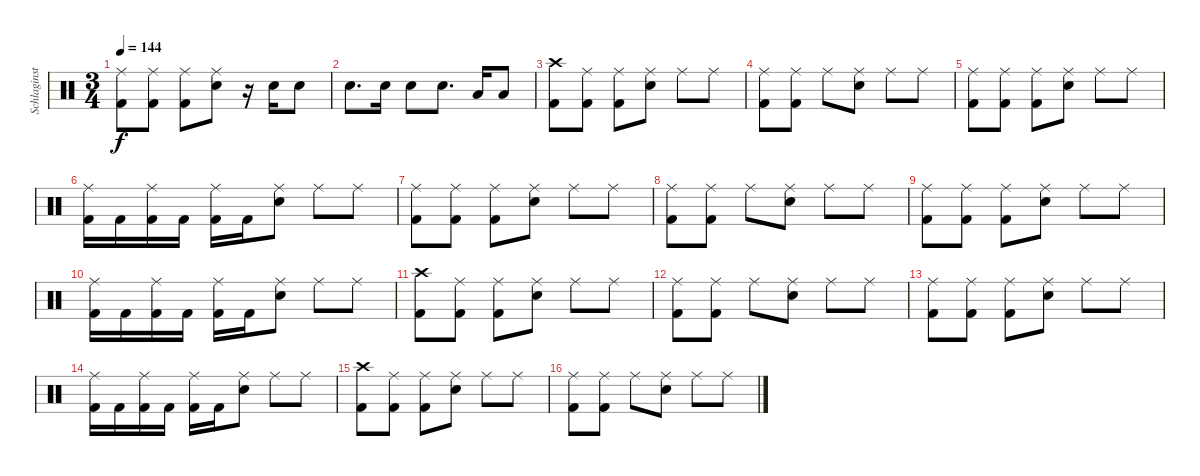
\track ("Schlaginstrumente - Auswahl" "Schlaginst") {instrument percussion}
\staff {score}
\articulation defaults
\ts (3 4)
\tempo 144
\clef neutral
\ks c
("Ride (middle)" "Kick (hit) 2").8{dy f} ("Ride (middle)" "Kick (hit) 2").8 ("Ride (middle)" "Kick (hit) 2").8 ("Ride (middle)" "Snare (hit) 2").8 r.16 "Snare (hit) 2".16 "Snare (hit) 2".8 |
"Snare (hit) 2".8{d} "Snare (hit) 2".16 "Snare (hit) 2".8 "Snare (hit) 2".8{d} "Low Tom (hit)".16 "Low Tom (hit)".8 |
("Crash high (hit)" "Kick (hit) 2").8 ("Ride (middle)" "Kick (hit) 2").8 ("Ride (middle)" "Kick (hit) 2").8 ("Ride (middle)" "Snare (hit) 2").8 "Ride (middle)".8 "Ride (middle)".8 |
("Ride (middle)" "Kick (hit) 2").8 ("Ride (middle)" "Kick (hit) 2").8 "Ride (middle)".8 ("Ride (middle)" "Snare (hit) 2").8 "Ride (middle)".8 "Ride (middle)".8 |
("Ride (middle)" "Kick (hit) 2").8 ("Ride (middle)" "Kick (hit) 2").8 ("Ride (middle)" "Kick (hit) 2").8 ("Ride (middle)" "Snare (hit) 2").8 "Ride (middle)".8 "Ride (middle)".8 |
("Ride (middle)" "Kick (hit) 2").16 "Kick (hit) 2".16 ("Ride (middle)" "Kick (hit) 2").16 "Kick (hit) 2".16 ("Ride (middle)" "Kick (hit) 2").16 "Kick (hit) 2".16 ("Ride (middle)" "Snare (hit) 2").8 "Ride (middle)".8 "Ride (middle)".8 |
("Ride (middle)" "Kick (hit) 2").8 ("Ride (middle)" "Kick (hit) 2").8 ("Ride (middle)" "Kick (hit) 2").8 ("Ride (middle)" "Snare (hit) 2").8 "Ride (middle)".8 "Ride (middle)".8 |
("Ride (middle)" "Kick (hit) 2").8 ("Ride (middle)" "Kick (hit) 2").8 "Ride (middle)".8 ("Ride (middle)" "Snare (hit) 2").8 "Ride (middle)".8 "Ride (middle)".8 |
("Ride (middle)" "Kick (hit) 2").8 ("Ride (middle)" "Kick (hit) 2").8 ("Ride (middle)" "Kick (hit) 2").8 ("Ride (middle)" "Snare (hit) 2").8 "Ride (middle)".8 "Ride (middle)".8 |
("Ride (middle)" "Kick (hit) 2").16 "Kick (hit) 2".16 ("Ride (middle)" "Kick (hit) 2").16 "Kick (hit) 2".16 ("Ride (middle)" "Kick (hit) 2").16 "Kick (hit) 2".16 ("Ride (middle)" "Snare (hit) 2").8 "Ride (middle)".8 "Ride (middle)".8 |
("Crash high (hit)" "Kick (hit) 2").8 ("Ride (middle)" "Kick (hit) 2").8 ("Ride (middle)" "Kick (hit) 2").8 ("Ride (middle)" "Snare (hit) 2").8 "Ride (middle)".8 "Ride (middle)".8 |
("Ride (middle)" "Kick (hit) 2").8 ("Ride (middle)" "Kick (hit) 2").8 "Ride (middle)".8 ("Ride (middle)" "Snare (hit) 2").8 "Ride (middle)".8 "Ride (middle)".8 |
("Ride (middle)" "Kick (hit) 2").8 ("Ride (middle)" "Kick (hit) 2").8 ("Ride (middle)" "Kick (hit) 2").8 ("Ride (middle)" "Snare (hit) 2").8 "Ride (middle)".8 "Ride (middle)".8 |
("Ride (middle)" "Kick (hit) 2").16 "Kick (hit) 2".16 ("Ride (middle)" "Kick (hit) 2").16 "Kick (hit) 2".16 ("Ride (middle)" "Kick (hit) 2").16 "Kick (hit) 2".16 ("Ride (middle)" "Snare (hit) 2").8 "Ride (middle)".8 "Ride (middle)".8 |
("Crash high (hit)" "Kick (hit) 2").8 ("Ride (middle)" "Kick (hit) 2").8 ("Ride (middle)" "Kick (hit) 2").8 ("Ride (middle)" "Snare (hit) 2").8 "Ride (middle)".8 "Ride (middle)".8 |
("Ride (middle)" "Kick (hit) 2").8 ("Ride (middle)" "Kick (hit) 2").8 "Ride (middle)".8 ("Ride (middle)" "Snare (hit) 2").8 "Ride (middle)".8 "Ride (middle)".8
